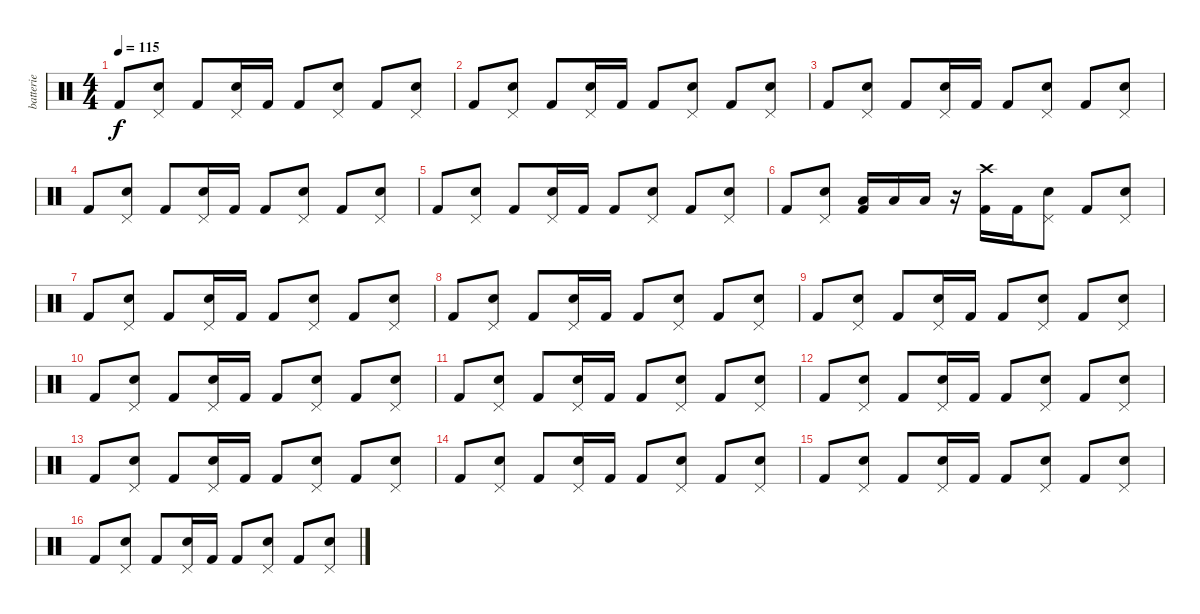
\track ("batterie" "batterie") {instrument percussion}
\staff {score}
\articulation defaults
\ts (4 4)
\tempo 115
\clef neutral
\ks c "Kick (hit) 2".8{dy f}
("Pedal Hi-Hat (hit)" "Electric Snare (hit)").8 "Kick (hit) 2".8 ("Pedal Hi-Hat (hit)" "Electric Snare (hit)").16 "Kick (hit) 2".16 "Kick (hit) 2".8 ("Pedal Hi-Hat (hit)" "Electric Snare (hit)").8 "Kick (hit) 2".8 ("Pedal Hi-Hat (hit)" "Electric Snare (hit)").8 |
"Kick (hit) 2".8 ("Pedal Hi-Hat (hit)" "Electric Snare (hit)").8 "Kick (hit) 2".8 ("Pedal Hi-Hat (hit)" "Electric Snare (hit)").16 "Kick (hit) 2".16 "Kick (hit) 2".8 ("Pedal Hi-Hat (hit)" "Electric Snare (hit)").8 "Kick (hit) 2".8 ("Pedal Hi-Hat (hit)" "Electric Snare (hit)").8 |
"Kick (hit) 2".8 ("Pedal Hi-Hat (hit)" "Electric Snare (hit)").8 "Kick (hit) 2".8 ("Pedal Hi-Hat (hit)" "Electric Snare (hit)").16 "Kick (hit) 2".16 "Kick (hit) 2".8 ("Pedal Hi-Hat (hit)" "Electric Snare (hit)").8 "Kick (hit) 2".8 ("Pedal Hi-Hat (hit)" "Electric Snare (hit)").8 |
"Kick (hit) 2".8 ("Pedal Hi-Hat (hit)" "Electric Snare (hit)").8 "Kick (hit) 2".8 ("Pedal Hi-Hat (hit)" "Electric Snare (hit)").16 "Kick (hit) 2".16 "Kick (hit) 2".8 ("Pedal Hi-Hat (hit)" "Electric Snare (hit)").8 "Kick (hit) 2".8 ("Pedal Hi-Hat (hit)" "Electric Snare (hit)").8 |
"Kick (hit) 2".8 ("Pedal Hi-Hat (hit)" "Electric Snare (hit)").8 "Kick (hit) 2".8 ("Pedal Hi-Hat (hit)" "Electric Snare (hit)").16 "Kick (hit) 2".16 "Kick (hit) 2".8 ("Pedal Hi-Hat (hit)" "Electric Snare (hit)").8 "Kick (hit) 2".8 ("Pedal Hi-Hat (hit)" "Electric Snare (hit)").8 |
"Kick (hit) 2".8 ("Pedal Hi-Hat (hit)" "Electric Snare (hit)").8 ("Low Tom (hit)" "Kick (hit) 2").16 "Low Tom (hit)".16 "Low Tom (hit)".16 r.16 ("Crash high (hit)" "Kick (hit) 2").16 "Kick (hit) 2".16 ("Pedal Hi-Hat (hit)" "Electric Snare (hit)").8 "Kick (hit) 2".8 ("Pedal Hi-Hat (hit)" "Electric Snare (hit)").8 |
"Kick (hit) 2".8 ("Pedal Hi-Hat (hit)" "Electric Snare (hit)").8 "Kick (hit) 2".8 ("Pedal Hi-Hat (hit)" "Electric Snare (hit)").16 "Kick (hit) 2".16 "Kick (hit) 2".8 ("Pedal Hi-Hat (hit)" "Electric Snare (hit)").8 "Kick (hit) 2".8 ("Pedal Hi-Hat (hit)" "Electric Snare (hit)").8 |
"Kick (hit) 2".8 ("Pedal Hi-Hat (hit)" "Electric Snare (hit)").8 "Kick (hit) 2".8 ("Pedal Hi-Hat (hit)" "Electric Snare (hit)").16 "Kick (hit) 2".16 "Kick (hit) 2".8 ("Pedal Hi-Hat (hit)" "Electric Snare (hit)").8 "Kick (hit) 2".8 ("Pedal Hi-Hat (hit)" "Electric Snare (hit)").8 |
"Kick (hit) 2".8 ("Pedal Hi-Hat (hit)" "Electric Snare (hit)").8 "Kick (hit) 2".8 ("Pedal Hi-Hat (hit)" "Electric Snare (hit)").16 "Kick (hit) 2".16 "Kick (hit) 2".8 ("Pedal Hi-Hat (hit)" "Electric Snare (hit)").8 "Kick (hit) 2".8 ("Pedal Hi-Hat (hit)" "Electric Snare (hit)").8 |
"Kick (hit) 2".8 ("Pedal Hi-Hat (hit)" "Electric Snare (hit)").8 "Kick (hit) 2".8 ("Pedal Hi-Hat (hit)" "Electric Snare (hit)").16 "Kick (hit) 2".16 "Kick (hit) 2".8 ("Pedal Hi-Hat (hit)" "Electric Snare (hit)").8 "Kick (hit) 2".8 ("Pedal Hi-Hat (hit)" "Electric Snare (hit)").8 |
"Kick (hit) 2".8 ("Pedal Hi-Hat (hit)" "Electric Snare (hit)").8 "Kick (hit) 2".8 ("Pedal Hi-Hat (hit)" "Electric Snare (hit)").16 "Kick (hit) 2".16 "Kick (hit) 2".8 ("Pedal Hi-Hat (hit)" "Electric Snare (hit)").8 "Kick (hit) 2".8 ("Pedal Hi-Hat (hit)" "Electric Snare (hit)").8 |
"Kick (hit) 2".8 ("Pedal Hi-Hat (hit)" "Electric Snare (hit)").8 "Kick (hit) 2".8 ("Pedal Hi-Hat (hit)" "Electric Snare (hit)").16 "Kick (hit) 2".16 "Kick (hit) 2".8 ("Pedal Hi-Hat (hit)" "Electric Snare (hit)").8 "Kick (hit) 2".8 ("Pedal Hi-Hat (hit)" "Electric Snare (hit)").8 |
"Kick (hit) 2".8 ("Pedal Hi-Hat (hit)" "Electric Snare (hit)").8 "Kick (hit) 2".8 ("Pedal Hi-Hat (hit)" "Electric Snare (hit)").16 "Kick (hit) 2".16 "Kick (hit) 2".8 ("Pedal Hi-Hat (hit)" "Electric Snare (hit)").8 "Kick (hit) 2".8 ("Pedal Hi-Hat (hit)" "Electric Snare (hit)").8 |
"Kick (hit) 2".8 ("Pedal Hi-Hat (hit)" "Electric Snare (hit)").8 "Kick (hit) 2".8 ("Pedal Hi-Hat (hit)" "Electric Snare (hit)").16 "Kick (hit) 2".16 "Kick (hit) 2".8 ("Pedal Hi-Hat (hit)" "Electric Snare (hit)").8 "Kick (hit) 2".8 ("Pedal Hi-Hat (hit)" "Electric Snare (hit)").8 |
"Kick (hit) 2".8 ("Pedal Hi-Hat (hit)" "Electric Snare (hit)").8 "Kick (hit) 2".8 ("Pedal Hi-Hat (hit)" "Electric Snare (hit)").16 "Kick (hit) 2".16 "Kick (hit) 2".8 ("Pedal Hi-Hat (hit)" "Electric Snare (hit)").8 "Kick (hit) 2".8 ("Pedal Hi-Hat (hit)" "Electric Snare (hit)").8 |
"Kick (hit) 2".8 ("Pedal Hi-Hat (hit)" "Electric Snare (hit)").8 "Kick (hit) 2".8 ("Pedal Hi-Hat (hit)" "Electric Snare (hit)").16 "Kick (hit) 2".16 "Kick (hit) 2".8 ("Pedal Hi-Hat (hit)" "Electric Snare (hit)").8 "Kick (hit) 2".8 ("Pedal Hi-Hat (hit)" "Electric Snare (hit)").8
